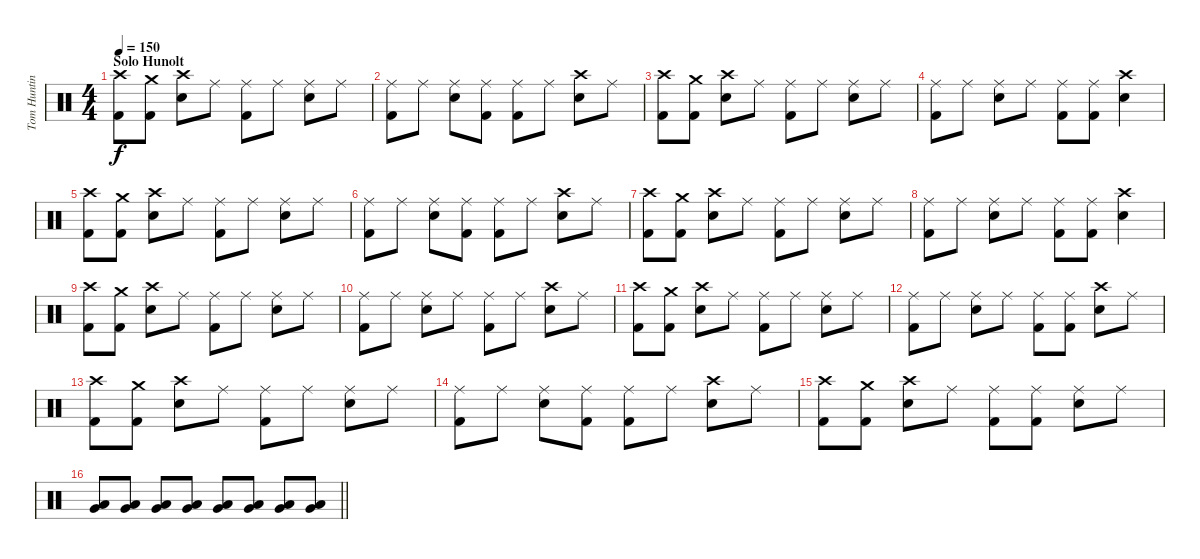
\track ("Tom Hunting" "Tom Huntin") {instrument percussion}
\staff {score}
\articulation defaults
\ts (4 4)
\section ("" "Solo Hunolt")
\tempo 150
\clef neutral
\ks c
("Crash high (hit)" "Kick (hit) 2").8{dy f} ("Crash medium (hit)" "Kick (hit) 2").8 ("Crash high (hit)" "Snare (hit) 2").8 "Ride (middle)".8 ("Ride (middle)" "Kick (hit) 2").8 "Ride (middle)".8 ("Ride (middle)" "Snare (hit) 2").8 "Ride (middle)".8 |
("Ride (middle)" "Kick (hit) 2").8 "Ride (middle)".8 ("Ride (middle)" "Snare (hit) 2").8 ("Ride (middle)" "Kick (hit) 2").8 ("Ride (middle)" "Kick (hit) 2").8 "Ride (middle)".8 ("Crash high (hit)" "Snare (hit) 2").8 "Ride (middle)".8 |
("Crash high (hit)" "Kick (hit) 2").8 ("Crash medium (hit)" "Kick (hit) 2").8 ("Crash high (hit)" "Snare (hit) 2").8 "Ride (middle)".8 ("Ride (middle)" "Kick (hit) 2").8 "Ride (middle)".8 ("Ride (middle)" "Snare (hit) 2").8 "Ride (middle)".8 |
("Ride (middle)" "Kick (hit) 2").8 "Ride (middle)".8 ("Ride (middle)" "Snare (hit) 2").8 "Ride (middle)".8 ("Ride (middle)" "Kick (hit) 2").8 ("Ride (middle)" "Kick (hit) 2").8 ("Crash high (hit)" "Snare (hit) 2").4 |
("Crash high (hit)" "Kick (hit) 2").8 ("Crash medium (hit)" "Kick (hit) 2").8 ("Crash high (hit)" "Snare (hit) 2").8 "Ride (middle)".8 ("Ride (middle)" "Kick (hit) 2").8 "Ride (middle)".8 ("Ride (middle)" "Snare (hit) 2").8 "Ride (middle)".8 |
("Ride (middle)" "Kick (hit) 2").8 "Ride (middle)".8 ("Ride (middle)" "Snare (hit) 2").8 ("Ride (middle)" "Kick (hit) 2").8 ("Ride (middle)" "Kick (hit) 2").8 "Ride (middle)".8 ("Crash high (hit)" "Snare (hit) 2").8 "Ride (middle)".8 |
("Crash high (hit)" "Kick (hit) 2").8 ("Crash medium (hit)" "Kick (hit) 2").8 ("Crash high (hit)" "Snare (hit) 2").8 "Ride (middle)".8 ("Ride (middle)" "Kick (hit) 2").8 "Ride (middle)".8 ("Ride (middle)" "Snare (hit) 2").8 "Ride (middle)".8 |
("Ride (middle)" "Kick (hit) 2").8 "Ride (middle)".8 ("Ride (middle)" "Snare (hit) 2").8 "Ride (middle)".8 ("Ride (middle)" "Kick (hit) 2").8 ("Ride (middle)" "Kick (hit) 2").8 ("Crash high (hit)" "Snare (hit) 2").4 |
("Crash high (hit)" "Kick (hit) 2").8 ("Crash medium (hit)" "Kick (hit) 2").8 ("Crash high (hit)" "Snare (hit) 2").8 "Ride (middle)".8 ("Ride (middle)" "Kick (hit) 2").8 "Ride (middle)".8 ("Ride (middle)" "Snare (hit) 2").8 "Ride (middle)".8 |
("Ride (middle)" "Kick (hit) 2").8 "Ride (middle)".8 ("Ride (middle)" "Snare (hit) 2").8 "Ride (middle)".8 ("Ride (middle)" "Kick (hit) 2").8 "Ride (middle)".8 ("Crash high (hit)" "Snare (hit) 2").8 "Ride (middle)".8 |
("Crash high (hit)" "Kick (hit) 2").8 ("Crash medium (hit)" "Kick (hit) 2").8 ("Crash high (hit)" "Snare (hit) 2").8 "Ride (middle)".8 ("Ride (middle)" "Kick (hit) 2").8 "Ride (middle)".8 ("Ride (middle)" "Snare (hit) 2").8 "Ride (middle)".8 |
("Ride (middle)" "Kick (hit) 2").8 "Ride (middle)".8 ("Ride (middle)" "Snare (hit) 2").8 "Ride (middle)".8 ("Ride (middle)" "Kick (hit) 2").8 ("Ride (middle)" "Kick (hit) 2").8 ("Crash high (hit)" "Snare (hit) 2").8 "Ride (middle)".8 |
("Crash high (hit)" "Kick (hit) 2").8 ("Crash medium (hit)" "Kick (hit) 2").8 ("Crash high (hit)" "Snare (hit) 2").8 "Ride (middle)".8 ("Ride (middle)" "Kick (hit) 2").8 "Ride (middle)".8 ("Ride (middle)" "Snare (hit) 2").8 "Ride (middle)".8 |
("Ride (middle)" "Kick (hit) 2").8 "Ride (middle)".8 ("Ride (middle)" "Snare (hit) 2").8 ("Ride (middle)" "Kick (hit) 2").8 ("Ride (middle)" "Kick (hit) 2").8 "Ride (middle)".8 ("Crash high (hit)" "Snare (hit) 2").8 "Ride (middle)".8 |
("Crash high (hit)" "Kick (hit) 2").8 ("Crash medium (hit)" "Kick (hit) 2").8 ("Crash high (hit)" "Snare (hit) 2").8 "Ride (middle)".8 ("Ride (middle)" "Kick (hit) 2").8 ("Ride (middle)" "Kick (hit) 2").8 ("Ride (middle)" "Snare (hit) 2").8 "Ride (middle)".8 |
\barLineRight lightlight
("Low Tom (hit)" "Very Low Tom (hit)").8 ("Low Tom (hit)" "Very Low Tom (hit)").8 ("Low Tom (hit)" "Very Low Tom (hit)").8 ("Low Tom (hit)" "Very Low Tom (hit)").8 ("Low Tom (hit)" "Very Low Tom (hit)").8 ("Low Tom (hit)" "Very Low Tom (hit)").8 ("Low Tom (hit)" "Very Low Tom (hit)").8 ("Low Tom (hit)" "Very Low Tom (hit)").8
